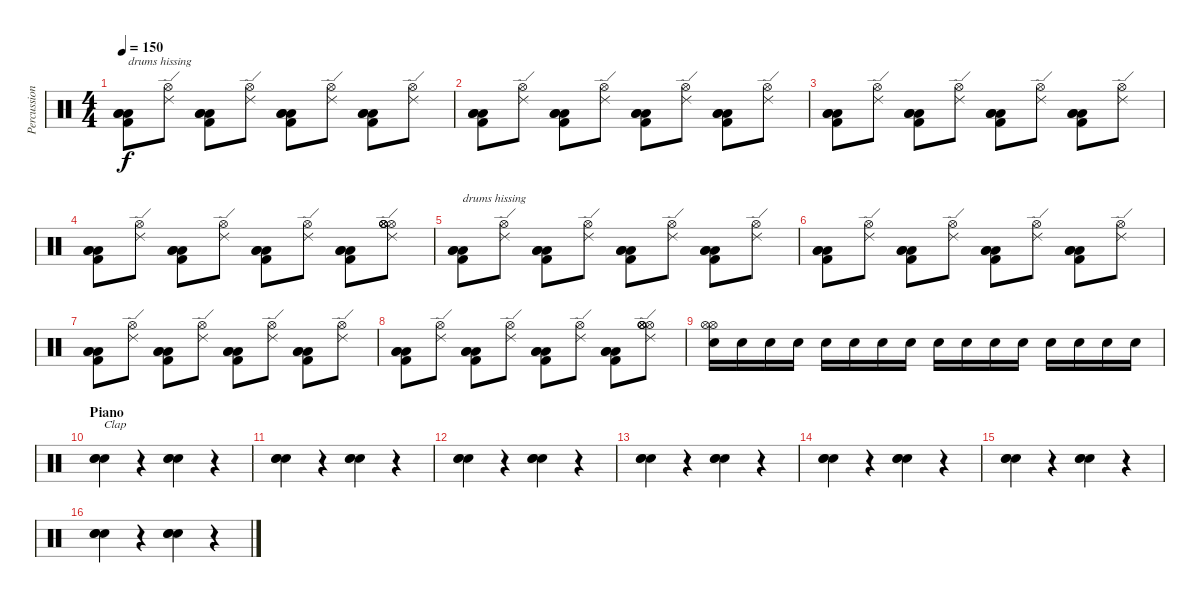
\track ("Percussion" "Percussion") {instrument percussion}
\staff {score}
\articulation defaults
\ts (4 4)
\tempo 150
\clef neutral
\ks c
("Kick (hit) 2" "Low Tom (hit)" "Low Tom (hit)" "Low Tom (hit)").8{txt "drums hissing" dy f} ("Ride (edge) 2" "Hi-Hat (open)").8 ("Kick (hit) 2" "Low Tom (hit)" "Low Tom (hit)" "Low Tom (hit)").8 ("Ride (edge) 2" "Hi-Hat (open)").8 ("Kick (hit) 2" "Low Tom (hit)" "Low Tom (hit)" "Low Tom (hit)").8 ("Ride (edge) 2" "Hi-Hat (open)").8 ("Kick (hit) 2" "Low Tom (hit)" "Low Tom (hit)" "Low Tom (hit)").8 ("Ride (edge) 2" "Hi-Hat (open)").8 |
("Kick (hit) 2" "Low Tom (hit)" "Low Tom (hit)" "Low Tom (hit)").8 ("Ride (edge) 2" "Hi-Hat (open)").8 ("Kick (hit) 2" "Low Tom (hit)" "Low Tom (hit)" "Low Tom (hit)").8 ("Ride (edge) 2" "Hi-Hat (open)").8 ("Kick (hit) 2" "Low Tom (hit)" "Low Tom (hit)" "Low Tom (hit)").8 ("Ride (edge) 2" "Hi-Hat (open)").8 ("Kick (hit) 2" "Low Tom (hit)" "Low Tom (hit)" "Low Tom (hit)").8 ("Ride (edge) 2" "Hi-Hat (open)").8 |
("Kick (hit) 2" "Low Tom (hit)" "Low Tom (hit)" "Low Tom (hit)").8 ("Ride (edge) 2" "Hi-Hat (open)").8 ("Kick (hit) 2" "Low Tom (hit)" "Low Tom (hit)" "Low Tom (hit)").8 ("Ride (edge) 2" "Hi-Hat (open)").8 ("Kick (hit) 2" "Low Tom (hit)" "Low Tom (hit)" "Low Tom (hit)").8 ("Ride (edge) 2" "Hi-Hat (open)").8 ("Kick (hit) 2" "Low Tom (hit)" "Low Tom (hit)" "Low Tom (hit)").8 ("Ride (edge) 2" "Hi-Hat (open)").8 |
("Kick (hit) 2" "Low Tom (hit)" "Low Tom (hit)" "Low Tom (hit)").8 ("Ride (edge) 2" "Hi-Hat (open)").8 ("Kick (hit) 2" "Low Tom (hit)" "Low Tom (hit)" "Low Tom (hit)").8 ("Ride (edge) 2" "Hi-Hat (open)").8 ("Kick (hit) 2" "Low Tom (hit)" "Low Tom (hit)" "Low Tom (hit)").8 ("Ride (edge) 2" "Hi-Hat (open)").8 ("Kick (hit) 2" "Low Tom (hit)" "Low Tom (hit)" "Low Tom (hit)").8 ("Hi-Hat (open)" "Hi-Hat (open)" "Hi-Hat (open)" "Ride (edge) 2" "Hi-Hat (open)").8 |
("Kick (hit) 2" "Low Tom (hit)" "Low Tom (hit)" "Low Tom (hit)").8{txt "drums hissing"} ("Ride (edge) 2" "Hi-Hat (open)").8 ("Kick (hit) 2" "Low Tom (hit)" "Low Tom (hit)" "Low Tom (hit)").8 ("Ride (edge) 2" "Hi-Hat (open)").8 ("Kick (hit) 2" "Low Tom (hit)" "Low Tom (hit)" "Low Tom (hit)").8 ("Ride (edge) 2" "Hi-Hat (open)").8 ("Kick (hit) 2" "Low Tom (hit)" "Low Tom (hit)" "Low Tom (hit)").8 ("Ride (edge) 2" "Hi-Hat (open)").8 |
("Kick (hit) 2" "Low Tom (hit)" "Low Tom (hit)" "Low Tom (hit)").8 ("Ride (edge) 2" "Hi-Hat (open)").8 ("Kick (hit) 2" "Low Tom (hit)" "Low Tom (hit)" "Low Tom (hit)").8 ("Ride (edge) 2" "Hi-Hat (open)").8 ("Kick (hit) 2" "Low Tom (hit)" "Low Tom (hit)" "Low Tom (hit)").8 ("Ride (edge) 2" "Hi-Hat (open)").8 ("Kick (hit) 2" "Low Tom (hit)" "Low Tom (hit)" "Low Tom (hit)").8 ("Ride (edge) 2" "Hi-Hat (open)").8 |
("Kick (hit) 2" "Low Tom (hit)" "Low Tom (hit)" "Low Tom (hit)").8 ("Ride (edge) 2" "Hi-Hat (open)").8 ("Kick (hit) 2" "Low Tom (hit)" "Low Tom (hit)" "Low Tom (hit)").8 ("Ride (edge) 2" "Hi-Hat (open)").8 ("Kick (hit) 2" "Low Tom (hit)" "Low Tom (hit)" "Low Tom (hit)").8 ("Ride (edge) 2" "Hi-Hat (open)").8 ("Kick (hit) 2" "Low Tom (hit)" "Low Tom (hit)" "Low Tom (hit)").8 ("Ride (edge) 2" "Hi-Hat (open)").8 |
("Kick (hit) 2" "Low Tom (hit)" "Low Tom (hit)" "Low Tom (hit)").8 ("Ride (edge) 2" "Hi-Hat (open)").8 ("Kick (hit) 2" "Low Tom (hit)" "Low Tom (hit)" "Low Tom (hit)").8 ("Ride (edge) 2" "Hi-Hat (open)").8 ("Kick (hit) 2" "Low Tom (hit)" "Low Tom (hit)" "Low Tom (hit)").8 ("Ride (edge) 2" "Hi-Hat (open)").8 ("Kick (hit) 2" "Low Tom (hit)" "Low Tom (hit)" "Low Tom (hit)").8 ("Hi-Hat (open)" "Hi-Hat (open)" "Hi-Hat (open)" "Ride (edge) 2" "Hi-Hat (open)").8 |
("Hi-Hat (open)" "Hi-Hat (open)" "Electric Snare (hit)").16 "Snare (hit) 2".16 "Snare (hit) 2".16 "Snare (hit) 2".16 "Electric Snare (hit)".16 "Snare (hit) 2".16 "Snare (hit) 2".16 "Snare (hit) 2".16 "Electric Snare (hit)".16 "Snare (hit) 2".16 "Snare (hit) 2".16 "Snare (hit) 2".16 "Electric Snare (hit)".16 "Snare (hit) 2".16 "Snare (hit) 2".16 "Snare (hit) 2".16 |
\section ("" "Piano")
("Hand Clap (hit)" "Hand Clap (hit)" "Hand Clap (hit)").4{txt "Clap"} r.4 ("Hand Clap (hit)" "Hand Clap (hit)" "Hand Clap (hit)").4 r.4 |
("Hand Clap (hit)" "Hand Clap (hit)" "Hand Clap (hit)").4 r.4 ("Hand Clap (hit)" "Hand Clap (hit)" "Hand Clap (hit)").4 r.4 |
("Hand Clap (hit)" "Hand Clap (hit)" "Hand Clap (hit)").4 r.4 ("Hand Clap (hit)" "Hand Clap (hit)" "Hand Clap (hit)").4 r.4 |
("Hand Clap (hit)" "Hand Clap (hit)" "Hand Clap (hit)").4 r.4 ("Hand Clap (hit)" "Hand Clap (hit)" "Hand Clap (hit)").4 r.4 |
("Hand Clap (hit)" "Hand Clap (hit)" "Hand Clap (hit)").4 r.4 ("Hand Clap (hit)" "Hand Clap (hit)" "Hand Clap (hit)").4 r.4 |
("Hand Clap (hit)" "Hand Clap (hit)" "Hand Clap (hit)").4 r.4 ("Hand Clap (hit)" "Hand Clap (hit)" "Hand Clap (hit)").4 r.4 |
("Hand Clap (hit)" "Hand Clap (hit)" "Hand Clap (hit)").4 r.4 ("Hand Clap (hit)" "Hand Clap (hit)" "Hand Clap (hit)").4 r.4
